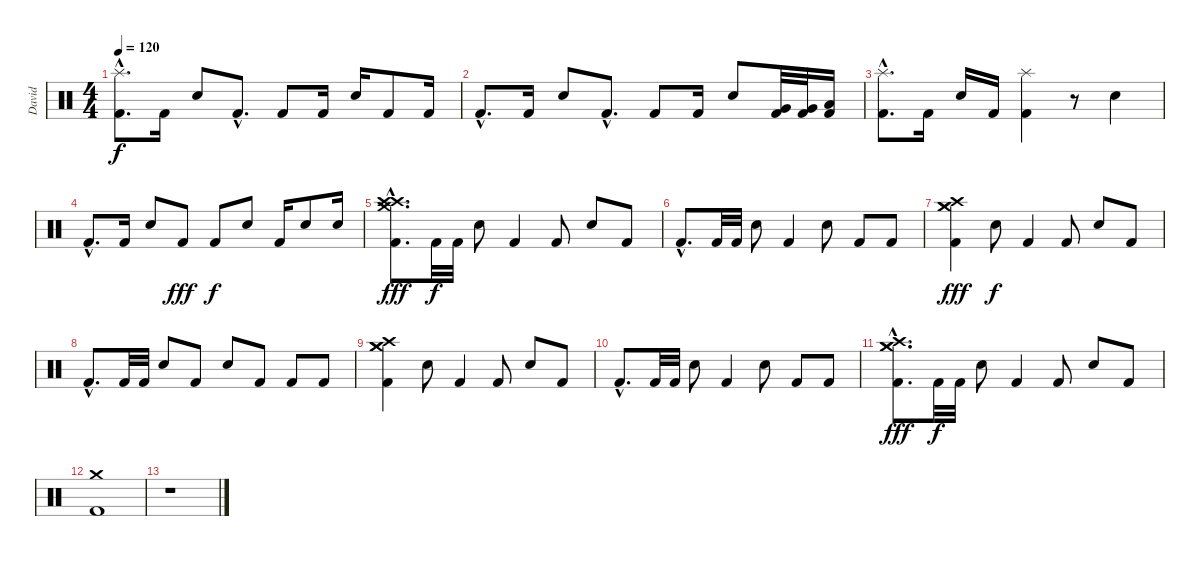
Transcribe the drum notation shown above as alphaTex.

\track ("David " "David ") {instrument percussion}
\staff {score}
\articulation defaults
\ts (4 4)
\tempo 120
\clef neutral
\ks c
("Splash (hit)"{hac} "Kick (hit) 2"{hac}).8{d dy f} "Kick (hit) 2".16 "Snare (hit) 2".8 "Kick (hit) 2"{hac}.8{d} "Kick (hit) 2".8 "Kick (hit) 2".16 "Snare (hit) 2".16 "Kick (hit) 2".8 "Kick (hit) 2".16 |
"Kick (hit) 2"{hac}.8{d} "Kick (hit) 2".16 "Snare (hit) 2".8 "Kick (hit) 2"{hac}.8{d} "Kick (hit) 2".8 "Kick (hit) 2".16 "Snare (hit) 2".8 ("Very Low Tom (hit)" "Kick (hit) 2").32 ("Very Low Tom (hit)" "Kick (hit) 2").32 ("Low Floor Tom (hit)" "Kick (hit) 2").16 |
("Splash (hit)"{hac} "Kick (hit) 2"{hac}).8{d} "Kick (hit) 2".16 "Snare (hit) 2".16 "Kick (hit) 2".16 ("Splash (hit)" "Kick (hit) 2").4 r.8 "Snare (hit) 2".4 |
"Kick (hit) 2"{hac}.8{d} "Kick (hit) 2".16 "Snare (hit) 2".8 "Kick (hit) 2".8{dy fff} "Kick (hit) 2".8{dy f} "Snare (hit) 2".8 "Kick (hit) 2".16 "Snare (hit) 2".8 "Snare (hit) 2".16 |
("Crash high (hit)"{hac} "Crash medium (hit)"{hac} "Crash high (hit)"{hac} "Kick (hit) 2"{hac}).8{d dy fff} "Kick (hit) 2".32{dy f} "Kick (hit) 2".32 "Snare (hit) 2".8 "Kick (hit) 2".4 "Kick (hit) 2".8 "Snare (hit) 2".8 "Kick (hit) 2".8 |
"Kick (hit) 2"{hac}.8{d} "Kick (hit) 2".32 "Kick (hit) 2".32 "Snare (hit) 2".8 "Kick (hit) 2".4 "Snare (hit) 2".8 "Kick (hit) 2".8 "Kick (hit) 2".8 |
("Crash medium (hit)" "Crash high (hit)" "Crash medium (hit)" "Kick (hit) 2").4{dy fff} "Snare (hit) 2".8{dy f} "Kick (hit) 2".4 "Kick (hit) 2".8 "Snare (hit) 2".8 "Kick (hit) 2".8 |
"Kick (hit) 2"{hac}.8{d} "Kick (hit) 2".32 "Kick (hit) 2".32 "Snare (hit) 2".8 "Kick (hit) 2".8 "Snare (hit) 2".8 "Kick (hit) 2".8 "Kick (hit) 2".8 "Kick (hit) 2".8 |
("Crash medium (hit)" "Crash high (hit)" "Crash medium (hit)" "Kick (hit) 2").4 "Snare (hit) 2".8 "Kick (hit) 2".4 "Kick (hit) 2".8 "Snare (hit) 2".8 "Kick (hit) 2".8 |
"Kick (hit) 2"{hac}.8{d} "Kick (hit) 2".32 "Kick (hit) 2".32 "Snare (hit) 2".8 "Kick (hit) 2".4 "Snare (hit) 2".8 "Kick (hit) 2".8 "Kick (hit) 2".8 |
("Crash medium (hit)"{hac} "Crash high (hit)"{hac} "Crash medium (hit)"{hac} "Kick (hit) 2"{hac}).8{d dy fff} "Kick (hit) 2".32{dy f} "Kick (hit) 2".32 "Snare (hit) 2".8 "Kick (hit) 2".4 "Kick (hit) 2".8 "Snare (hit) 2".8 "Kick (hit) 2".8 |
("Crash medium (hit)" "Kick (hit) 2").1 |
r.1
